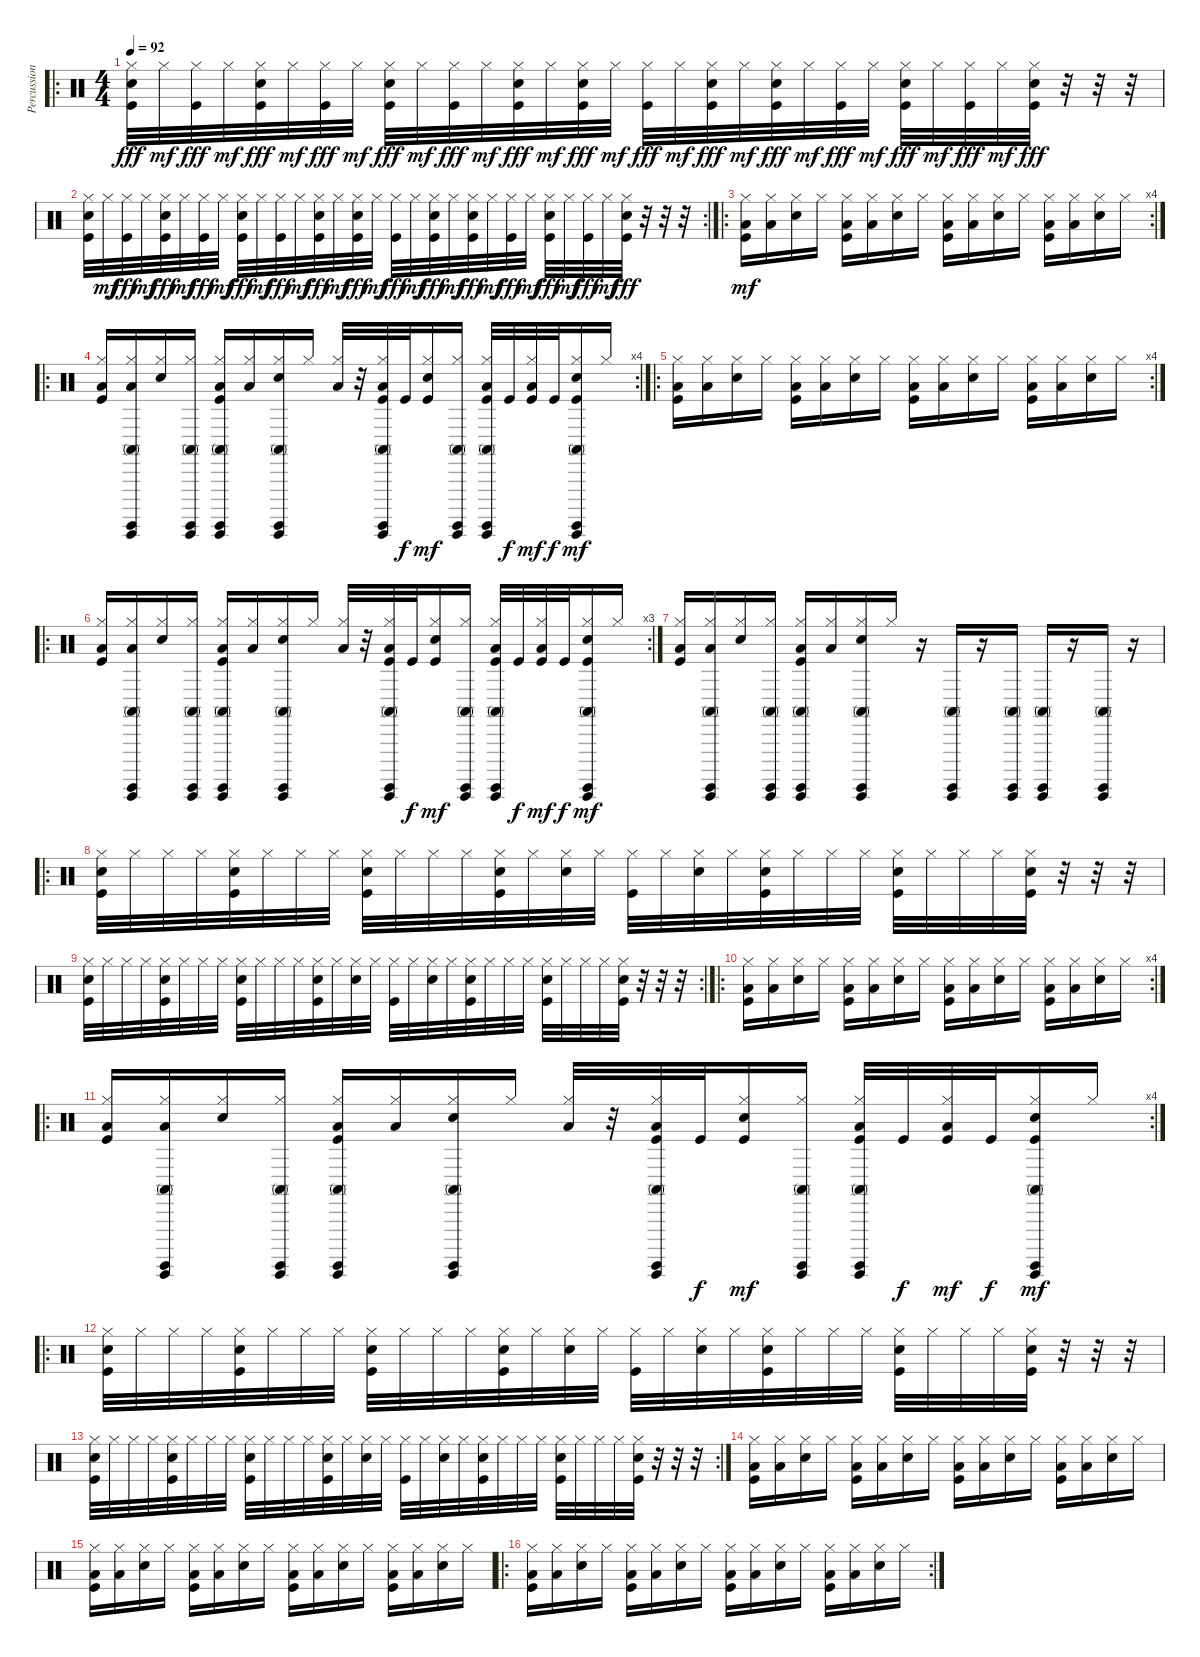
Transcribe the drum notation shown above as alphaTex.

\track ("Percussion" "Percussion") {solo instrument percussion}
\staff {score}
\articulation defaults
\ro
\ts (4 4)
\tempo 92
\clef neutral
\ks c
("Hi-Hat (closed)" "Snare (hit) 2" "Kick (hit)").32{dy fff} "Hi-Hat (closed)".32{dy mf} ("Hi-Hat (closed)" "Kick (hit)").32{dy fff} "Hi-Hat (closed)".32{dy mf} ("Hi-Hat (closed)" "Snare (hit) 2" "Kick (hit)").32{dy fff} "Hi-Hat (closed)".32{dy mf} ("Hi-Hat (closed)" "Kick (hit)").32{dy fff} "Hi-Hat (closed)".32{dy mf} ("Hi-Hat (closed)" "Snare (hit) 2" "Kick (hit)").32{dy fff} "Hi-Hat (closed)".32{dy mf} ("Hi-Hat (closed)" "Kick (hit)").32{dy fff} "Hi-Hat (closed)".32{dy mf} ("Hi-Hat (closed)" "Snare (hit) 2" "Kick (hit)").32{dy fff} "Hi-Hat (closed)".32{dy mf} ("Hi-Hat (closed)" "Snare (hit) 2" "Kick (hit)").32{dy fff} "Hi-Hat (closed)".32{dy mf} ("Hi-Hat (closed)" "Kick (hit)").32{dy fff} "Hi-Hat (closed)".32{dy mf} ("Hi-Hat (closed)" "Snare (hit) 2" "Kick (hit)").32{dy fff} "Hi-Hat (closed)".32{dy mf} ("Hi-Hat (closed)" "Snare (hit) 2" "Kick (hit)").32{dy fff} "Hi-Hat (closed)".32{dy mf} ("Hi-Hat (closed)" "Kick (hit)").32{dy fff} "Hi-Hat (closed)".32{dy mf} ("Hi-Hat (closed)" "Snare (hit) 2" "Kick (hit)").32{dy fff} "Hi-Hat (closed)".32{dy mf} ("Hi-Hat (closed)" "Kick (hit)").32{dy fff} "Hi-Hat (closed)".32{dy mf} ("Hi-Hat (closed)" "Snare (hit) 2" "Kick (hit)").32{dy fff} r.32 r.32 r.32 |
\rc 2
("Hi-Hat (closed)" "Snare (hit) 2" "Kick (hit)").32 "Hi-Hat (closed)".32{dy mf} ("Hi-Hat (closed)" "Kick (hit)").32{dy fff} "Hi-Hat (closed)".32{dy mf} ("Hi-Hat (closed)" "Snare (hit) 2" "Kick (hit)").32{dy fff} "Hi-Hat (closed)".32{dy mf} ("Hi-Hat (closed)" "Kick (hit)").32{dy fff} "Hi-Hat (closed)".32{dy mf} ("Hi-Hat (closed)" "Snare (hit) 2" "Kick (hit)").32{dy fff} "Hi-Hat (closed)".32{dy mf} ("Hi-Hat (closed)" "Kick (hit)").32{dy fff} "Hi-Hat (closed)".32{dy mf} ("Hi-Hat (closed)" "Snare (hit) 2" "Kick (hit)").32{dy fff} "Hi-Hat (closed)".32{dy mf} ("Hi-Hat (closed)" "Snare (hit) 2" "Kick (hit)").32{dy fff} "Hi-Hat (closed)".32{dy mf} ("Hi-Hat (closed)" "Kick (hit)").32{dy fff} "Hi-Hat (closed)".32{dy mf} ("Hi-Hat (closed)" "Snare (hit) 2" "Kick (hit)").32{dy fff} "Hi-Hat (closed)".32{dy mf} ("Hi-Hat (closed)" "Snare (hit) 2" "Kick (hit)").32{dy fff} "Hi-Hat (closed)".32{dy mf} ("Hi-Hat (closed)" "Kick (hit)").32{dy fff} "Hi-Hat (closed)".32{dy mf} ("Hi-Hat (closed)" "Snare (hit) 2" "Kick (hit)").32{dy fff} "Hi-Hat (closed)".32{dy mf} ("Hi-Hat (closed)" "Kick (hit)").32{dy fff} "Hi-Hat (closed)".32{dy mf} ("Hi-Hat (closed)" "Snare (hit) 2" "Kick (hit)").32{dy fff} r.32 r.32 r.32 |
\ro
\rc 4
("Hi-Hat (closed)" "Low Tom (hit)" "Kick (hit)").16{dy mf} ("Hi-Hat (closed)" "Low Tom (hit)").16 ("Hi-Hat (closed)" "Snare (hit) 2").16 "Hi-Hat (closed)".16 ("Hi-Hat (closed)" "Low Tom (hit)" "Kick (hit)").16 ("Hi-Hat (closed)" "Low Tom (hit)").16 ("Hi-Hat (closed)" "Snare (hit) 2").16 "Hi-Hat (closed)".16 ("Hi-Hat (closed)" "Low Tom (hit)" "Kick (hit)").16 ("Hi-Hat (closed)" "Low Tom (hit)").16 ("Hi-Hat (closed)" "Snare (hit) 2").16 "Hi-Hat (closed)".16 ("Hi-Hat (closed)" "Low Tom (hit)" "Kick (hit)").16 ("Hi-Hat (closed)" "Low Tom (hit)").16 ("Hi-Hat (closed)" "Snare (hit) 2").16 "Hi-Hat (closed)".16 |
\ro
\rc 4
("Hi-Hat (closed)" "Low Tom (hit)" "Kick (hit)").16 ("Hi-Hat (closed)" "Guiro (hit)" "Surdo (hit)" "Low Tom (hit)" "Conga high (mute)").16 ("Hi-Hat (closed)" "Snare (hit) 2").16 ("Hi-Hat (closed)" "Guiro (hit)" "Surdo (hit)" "Conga high (mute)").16 ("Hi-Hat (closed)" "Guiro (hit)" "Surdo (hit)" "Low Tom (hit)" "Conga high (mute)" "Kick (hit)").16 ("Hi-Hat (closed)" "Low Tom (hit)").16 ("Hi-Hat (closed)" "Guiro (hit)" "Surdo (hit)" "Snare (hit) 2" "Conga high (mute)").16 "Hi-Hat (closed)".16 ("Hi-Hat (closed)" "Low Tom (hit)").32 r.32 ("Hi-Hat (closed)" "Guiro (hit)" "Surdo (hit)" "Low Tom (hit)" "Conga high (mute)" "Kick (hit)").32 "Kick (hit)".32{dy f} ("Hi-Hat (closed)" "Snare (hit) 2" "Kick (hit)").16{dy mf} ("Hi-Hat (closed)" "Guiro (hit)" "Surdo (hit)" "Conga high (mute)").16 ("Hi-Hat (closed)" "Guiro (hit)" "Surdo (hit)" "Low Tom (hit)" "Conga high (mute)" "Kick (hit)").32 "Kick (hit)".32{dy f} ("Hi-Hat (closed)" "Low Tom (hit)" "Kick (hit)").32{dy mf} "Kick (hit)".32{dy f} ("Hi-Hat (closed)" "Guiro (hit)" "Surdo (hit)" "Snare (hit) 2" "Conga high (mute)" "Kick (hit)").16{dy mf} "Hi-Hat (closed)".16 |
\ro
\rc 4
("Hi-Hat (closed)" "Low Tom (hit)" "Kick (hit)").16 ("Hi-Hat (closed)" "Low Tom (hit)").16 ("Hi-Hat (closed)" "Snare (hit) 2").16 "Hi-Hat (closed)".16 ("Hi-Hat (closed)" "Low Tom (hit)" "Kick (hit)").16 ("Hi-Hat (closed)" "Low Tom (hit)").16 ("Hi-Hat (closed)" "Snare (hit) 2").16 "Hi-Hat (closed)".16 ("Hi-Hat (closed)" "Low Tom (hit)" "Kick (hit)").16 ("Hi-Hat (closed)" "Low Tom (hit)").16 ("Hi-Hat (closed)" "Snare (hit) 2").16 "Hi-Hat (closed)".16 ("Hi-Hat (closed)" "Low Tom (hit)" "Kick (hit)").16 ("Hi-Hat (closed)" "Low Tom (hit)").16 ("Hi-Hat (closed)" "Snare (hit) 2").16 "Hi-Hat (closed)".16 |
\ro
\rc 3
("Hi-Hat (closed)" "Low Tom (hit)" "Kick (hit)").16 ("Hi-Hat (closed)" "Guiro (hit)" "Surdo (hit)" "Low Tom (hit)" "Conga high (mute)").16 ("Hi-Hat (closed)" "Snare (hit) 2").16 ("Hi-Hat (closed)" "Guiro (hit)" "Surdo (hit)" "Conga high (mute)").16 ("Hi-Hat (closed)" "Guiro (hit)" "Surdo (hit)" "Low Tom (hit)" "Conga high (mute)" "Kick (hit)").16 ("Hi-Hat (closed)" "Low Tom (hit)").16 ("Hi-Hat (closed)" "Guiro (hit)" "Surdo (hit)" "Snare (hit) 2" "Conga high (mute)").16 "Hi-Hat (closed)".16 ("Hi-Hat (closed)" "Low Tom (hit)").32 r.32 ("Hi-Hat (closed)" "Guiro (hit)" "Surdo (hit)" "Low Tom (hit)" "Conga high (mute)" "Kick (hit)").32 "Kick (hit)".32{dy f} ("Hi-Hat (closed)" "Snare (hit) 2" "Kick (hit)").16{dy mf} ("Hi-Hat (closed)" "Guiro (hit)" "Surdo (hit)" "Conga high (mute)").16 ("Hi-Hat (closed)" "Guiro (hit)" "Surdo (hit)" "Low Tom (hit)" "Conga high (mute)" "Kick (hit)").32 "Kick (hit)".32{dy f} ("Hi-Hat (closed)" "Low Tom (hit)" "Kick (hit)").32{dy mf} "Kick (hit)".32{dy f} ("Hi-Hat (closed)" "Guiro (hit)" "Surdo (hit)" "Snare (hit) 2" "Conga high (mute)" "Kick (hit)").16{dy mf} "Hi-Hat (closed)".16 |
("Hi-Hat (closed)" "Low Tom (hit)" "Kick (hit)").16 ("Hi-Hat (closed)" "Guiro (hit)" "Surdo (hit)" "Low Tom (hit)" "Conga high (mute)").16 ("Hi-Hat (closed)" "Snare (hit) 2").16 ("Hi-Hat (closed)" "Guiro (hit)" "Surdo (hit)" "Conga high (mute)").16 ("Hi-Hat (closed)" "Guiro (hit)" "Surdo (hit)" "Low Tom (hit)" "Conga high (mute)" "Kick (hit)").16 ("Hi-Hat (closed)" "Low Tom (hit)").16 ("Hi-Hat (closed)" "Guiro (hit)" "Surdo (hit)" "Snare (hit) 2" "Conga high (mute)").16 "Hi-Hat (closed)".16 r.16 ("Guiro (hit)" "Surdo (hit)" "Conga high (mute)").16 r.16 ("Guiro (hit)" "Surdo (hit)" "Conga high (mute)").16 ("Guiro (hit)" "Surdo (hit)" "Conga high (mute)").16 r.16 ("Guiro (hit)" "Surdo (hit)" "Conga high (mute)").16 r.16 |
\ro
("Hi-Hat (closed)" "Snare (hit) 2" "Kick (hit)").32 "Hi-Hat (closed)".32 "Hi-Hat (closed)".32 "Hi-Hat (closed)".32 ("Hi-Hat (closed)" "Snare (hit) 2" "Kick (hit)").32 "Hi-Hat (closed)".32 "Hi-Hat (closed)".32 "Hi-Hat (closed)".32 ("Hi-Hat (closed)" "Snare (hit) 2" "Kick (hit)").32 "Hi-Hat (closed)".32 "Hi-Hat (closed)".32 "Hi-Hat (closed)".32 ("Hi-Hat (closed)" "Snare (hit) 2" "Kick (hit)").32 "Hi-Hat (closed)".32 ("Hi-Hat (closed)" "Snare (hit) 2").32 "Hi-Hat (closed)".32 ("Hi-Hat (closed)" "Kick (hit)").32 "Hi-Hat (closed)".32 ("Hi-Hat (closed)" "Snare (hit) 2").32 "Hi-Hat (closed)".32 ("Hi-Hat (closed)" "Snare (hit) 2" "Kick (hit)").32 "Hi-Hat (closed)".32 "Hi-Hat (closed)".32 "Hi-Hat (closed)".32 ("Hi-Hat (closed)" "Snare (hit) 2" "Kick (hit)").32 "Hi-Hat (closed)".32 "Hi-Hat (closed)".32 "Hi-Hat (closed)".32 ("Hi-Hat (closed)" "Snare (hit) 2" "Kick (hit)").32 r.32 r.32 r.32 |
\rc 2
("Hi-Hat (closed)" "Snare (hit) 2" "Kick (hit)").32 "Hi-Hat (closed)".32 "Hi-Hat (closed)".32 "Hi-Hat (closed)".32 ("Hi-Hat (closed)" "Snare (hit) 2" "Kick (hit)").32 "Hi-Hat (closed)".32 "Hi-Hat (closed)".32 "Hi-Hat (closed)".32 ("Hi-Hat (closed)" "Snare (hit) 2" "Kick (hit)").32 "Hi-Hat (closed)".32 "Hi-Hat (closed)".32 "Hi-Hat (closed)".32 ("Hi-Hat (closed)" "Snare (hit) 2" "Kick (hit)").32 "Hi-Hat (closed)".32 ("Hi-Hat (closed)" "Snare (hit) 2").32 "Hi-Hat (closed)".32 ("Hi-Hat (closed)" "Kick (hit)").32 "Hi-Hat (closed)".32 ("Hi-Hat (closed)" "Snare (hit) 2").32 "Hi-Hat (closed)".32 ("Hi-Hat (closed)" "Snare (hit) 2" "Kick (hit)").32 "Hi-Hat (closed)".32 "Hi-Hat (closed)".32 "Hi-Hat (closed)".32 ("Hi-Hat (closed)" "Snare (hit) 2" "Kick (hit)").32 "Hi-Hat (closed)".32 "Hi-Hat (closed)".32 "Hi-Hat (closed)".32 ("Hi-Hat (closed)" "Snare (hit) 2" "Kick (hit)").32 r.32 r.32 r.32 |
\ro
\rc 4
("Hi-Hat (closed)" "Low Tom (hit)" "Kick (hit)").16 ("Hi-Hat (closed)" "Low Tom (hit)").16 ("Hi-Hat (closed)" "Snare (hit) 2").16 "Hi-Hat (closed)".16 ("Hi-Hat (closed)" "Low Tom (hit)" "Kick (hit)").16 ("Hi-Hat (closed)" "Low Tom (hit)").16 ("Hi-Hat (closed)" "Snare (hit) 2").16 "Hi-Hat (closed)".16 ("Hi-Hat (closed)" "Low Tom (hit)" "Kick (hit)").16 ("Hi-Hat (closed)" "Low Tom (hit)").16 ("Hi-Hat (closed)" "Snare (hit) 2").16 "Hi-Hat (closed)".16 ("Hi-Hat (closed)" "Low Tom (hit)" "Kick (hit)").16 ("Hi-Hat (closed)" "Low Tom (hit)").16 ("Hi-Hat (closed)" "Snare (hit) 2").16 "Hi-Hat (closed)".16 |
\ro
\rc 4
("Hi-Hat (closed)" "Low Tom (hit)" "Kick (hit)").16 ("Hi-Hat (closed)" "Guiro (hit)" "Surdo (hit)" "Low Tom (hit)" "Conga high (mute)").16 ("Hi-Hat (closed)" "Snare (hit) 2").16 ("Hi-Hat (closed)" "Guiro (hit)" "Surdo (hit)" "Conga high (mute)").16 ("Hi-Hat (closed)" "Guiro (hit)" "Surdo (hit)" "Low Tom (hit)" "Conga high (mute)" "Kick (hit)").16 ("Hi-Hat (closed)" "Low Tom (hit)").16 ("Hi-Hat (closed)" "Guiro (hit)" "Surdo (hit)" "Snare (hit) 2" "Conga high (mute)").16 "Hi-Hat (closed)".16 ("Hi-Hat (closed)" "Low Tom (hit)").32 r.32 ("Hi-Hat (closed)" "Guiro (hit)" "Surdo (hit)" "Low Tom (hit)" "Conga high (mute)" "Kick (hit)").32 "Kick (hit)".32{dy f} ("Hi-Hat (closed)" "Snare (hit) 2" "Kick (hit)").16{dy mf} ("Hi-Hat (closed)" "Guiro (hit)" "Surdo (hit)" "Conga high (mute)").16 ("Hi-Hat (closed)" "Guiro (hit)" "Surdo (hit)" "Low Tom (hit)" "Conga high (mute)" "Kick (hit)").32 "Kick (hit)".32{dy f} ("Hi-Hat (closed)" "Low Tom (hit)" "Kick (hit)").32{dy mf} "Kick (hit)".32{dy f} ("Hi-Hat (closed)" "Guiro (hit)" "Surdo (hit)" "Snare (hit) 2" "Conga high (mute)" "Kick (hit)").16{dy mf} "Hi-Hat (closed)".16 |
\ro
("Hi-Hat (closed)" "Snare (hit) 2" "Kick (hit)").32 "Hi-Hat (closed)".32 "Hi-Hat (closed)".32 "Hi-Hat (closed)".32 ("Hi-Hat (closed)" "Snare (hit) 2" "Kick (hit)").32 "Hi-Hat (closed)".32 "Hi-Hat (closed)".32 "Hi-Hat (closed)".32 ("Hi-Hat (closed)" "Snare (hit) 2" "Kick (hit)").32 "Hi-Hat (closed)".32 "Hi-Hat (closed)".32 "Hi-Hat (closed)".32 ("Hi-Hat (closed)" "Snare (hit) 2" "Kick (hit)").32 "Hi-Hat (closed)".32 ("Hi-Hat (closed)" "Snare (hit) 2").32 "Hi-Hat (closed)".32 ("Hi-Hat (closed)" "Kick (hit)").32 "Hi-Hat (closed)".32 ("Hi-Hat (closed)" "Snare (hit) 2").32 "Hi-Hat (closed)".32 ("Hi-Hat (closed)" "Snare (hit) 2" "Kick (hit)").32 "Hi-Hat (closed)".32 "Hi-Hat (closed)".32 "Hi-Hat (closed)".32 ("Hi-Hat (closed)" "Snare (hit) 2" "Kick (hit)").32 "Hi-Hat (closed)".32 "Hi-Hat (closed)".32 "Hi-Hat (closed)".32 ("Hi-Hat (closed)" "Snare (hit) 2" "Kick (hit)").32 r.32 r.32 r.32 |
\rc 2
("Hi-Hat (closed)" "Snare (hit) 2" "Kick (hit)").32 "Hi-Hat (closed)".32 "Hi-Hat (closed)".32 "Hi-Hat (closed)".32 ("Hi-Hat (closed)" "Snare (hit) 2" "Kick (hit)").32 "Hi-Hat (closed)".32 "Hi-Hat (closed)".32 "Hi-Hat (closed)".32 ("Hi-Hat (closed)" "Snare (hit) 2" "Kick (hit)").32 "Hi-Hat (closed)".32 "Hi-Hat (closed)".32 "Hi-Hat (closed)".32 ("Hi-Hat (closed)" "Snare (hit) 2" "Kick (hit)").32 "Hi-Hat (closed)".32 ("Hi-Hat (closed)" "Snare (hit) 2").32 "Hi-Hat (closed)".32 ("Hi-Hat (closed)" "Kick (hit)").32 "Hi-Hat (closed)".32 ("Hi-Hat (closed)" "Snare (hit) 2").32 "Hi-Hat (closed)".32 ("Hi-Hat (closed)" "Snare (hit) 2" "Kick (hit)").32 "Hi-Hat (closed)".32 "Hi-Hat (closed)".32 "Hi-Hat (closed)".32 ("Hi-Hat (closed)" "Snare (hit) 2" "Kick (hit)").32 "Hi-Hat (closed)".32 "Hi-Hat (closed)".32 "Hi-Hat (closed)".32 ("Hi-Hat (closed)" "Snare (hit) 2" "Kick (hit)").32 r.32 r.32 r.32 |
("Hi-Hat (closed)" "Low Tom (hit)" "Kick (hit)").16 ("Hi-Hat (closed)" "Low Tom (hit)").16 ("Hi-Hat (closed)" "Snare (hit) 2").16 "Hi-Hat (closed)".16 ("Hi-Hat (closed)" "Low Tom (hit)" "Kick (hit)").16 ("Hi-Hat (closed)" "Low Tom (hit)").16 ("Hi-Hat (closed)" "Snare (hit) 2").16 "Hi-Hat (closed)".16 ("Hi-Hat (closed)" "Low Tom (hit)" "Kick (hit)").16 ("Hi-Hat (closed)" "Low Tom (hit)").16 ("Hi-Hat (closed)" "Snare (hit) 2").16 "Hi-Hat (closed)".16 ("Hi-Hat (closed)" "Low Tom (hit)" "Kick (hit)").16 ("Hi-Hat (closed)" "Low Tom (hit)").16 ("Hi-Hat (closed)" "Snare (hit) 2").16 "Hi-Hat (closed)".16 |
("Hi-Hat (closed)" "Low Tom (hit)" "Kick (hit)").16 ("Hi-Hat (closed)" "Low Tom (hit)").16 ("Hi-Hat (closed)" "Snare (hit) 2").16 "Hi-Hat (closed)".16 ("Hi-Hat (closed)" "Low Tom (hit)" "Kick (hit)").16 ("Hi-Hat (closed)" "Low Tom (hit)").16 ("Hi-Hat (closed)" "Snare (hit) 2").16 "Hi-Hat (closed)".16 ("Hi-Hat (closed)" "Low Tom (hit)" "Kick (hit)").16 ("Hi-Hat (closed)" "Low Tom (hit)").16 ("Hi-Hat (closed)" "Snare (hit) 2").16 "Hi-Hat (closed)".16 ("Hi-Hat (closed)" "Low Tom (hit)" "Kick (hit)").16 ("Hi-Hat (closed)" "Low Tom (hit)").16 ("Hi-Hat (closed)" "Snare (hit) 2").16 "Hi-Hat (closed)".16 |
\ro
\rc 2
("Hi-Hat (closed)" "Low Tom (hit)" "Kick (hit)").16 ("Hi-Hat (closed)" "Low Tom (hit)").16 ("Hi-Hat (closed)" "Snare (hit) 2").16 "Hi-Hat (closed)".16 ("Hi-Hat (closed)" "Low Tom (hit)" "Kick (hit)").16 ("Hi-Hat (closed)" "Low Tom (hit)").16 ("Hi-Hat (closed)" "Snare (hit) 2").16 "Hi-Hat (closed)".16 ("Hi-Hat (closed)" "Low Tom (hit)" "Kick (hit)").16 ("Hi-Hat (closed)" "Low Tom (hit)").16 ("Hi-Hat (closed)" "Snare (hit) 2").16 "Hi-Hat (closed)".16 ("Hi-Hat (closed)" "Low Tom (hit)" "Kick (hit)").16 ("Hi-Hat (closed)" "Low Tom (hit)").16 ("Hi-Hat (closed)" "Snare (hit) 2").16 "Hi-Hat (closed)".16
